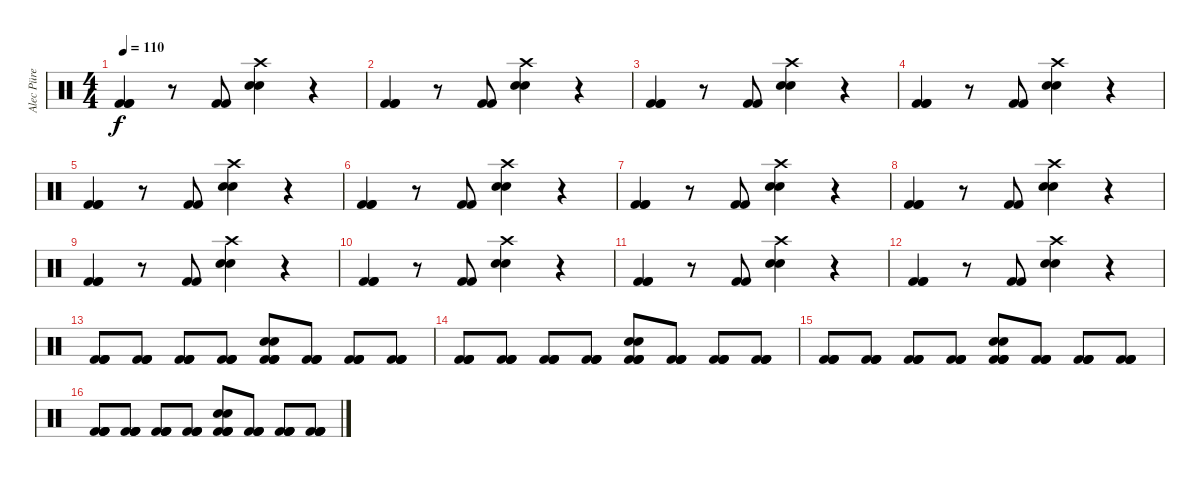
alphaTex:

\track ("Alec Püre" "Alec Püre") {instrument percussion}
\staff {score}
\articulation defaults
\ts (4 4)
\tempo 110
\clef neutral
\ks c
("Kick (hit) 2" "Kick (hit) 2" "Kick (hit) 2").4{dy f} r.8 ("Kick (hit) 2" "Kick (hit) 2").8 ("Crash high (hit)" "Snare (hit) 2" "Snare (hit) 2").4 r.4 |
("Kick (hit) 2" "Kick (hit) 2" "Kick (hit) 2").4 r.8 ("Kick (hit) 2" "Kick (hit) 2").8 ("Crash high (hit)" "Snare (hit) 2" "Snare (hit) 2").4 r.4 |
("Kick (hit) 2" "Kick (hit) 2" "Kick (hit) 2").4 r.8 ("Kick (hit) 2" "Kick (hit) 2").8 ("Crash high (hit)" "Snare (hit) 2" "Snare (hit) 2").4 r.4 |
("Kick (hit) 2" "Kick (hit) 2" "Kick (hit) 2").4 r.8 ("Kick (hit) 2" "Kick (hit) 2").8 ("Crash high (hit)" "Snare (hit) 2" "Snare (hit) 2").4 r.4 |
("Kick (hit) 2" "Kick (hit) 2" "Kick (hit) 2").4 r.8 ("Kick (hit) 2" "Kick (hit) 2").8 ("Crash high (hit)" "Snare (hit) 2" "Snare (hit) 2").4 r.4 |
("Kick (hit) 2" "Kick (hit) 2" "Kick (hit) 2").4 r.8 ("Kick (hit) 2" "Kick (hit) 2").8 ("Crash high (hit)" "Snare (hit) 2" "Snare (hit) 2").4 r.4 |
("Kick (hit) 2" "Kick (hit) 2" "Kick (hit) 2").4 r.8 ("Kick (hit) 2" "Kick (hit) 2").8 ("Crash high (hit)" "Snare (hit) 2" "Snare (hit) 2").4 r.4 |
("Kick (hit) 2" "Kick (hit) 2" "Kick (hit) 2").4 r.8 ("Kick (hit) 2" "Kick (hit) 2").8 ("Crash high (hit)" "Snare (hit) 2" "Snare (hit) 2").4 r.4 |
("Kick (hit) 2" "Kick (hit) 2" "Kick (hit) 2").4 r.8 ("Kick (hit) 2" "Kick (hit) 2").8 ("Crash high (hit)" "Snare (hit) 2" "Snare (hit) 2").4 r.4 |
("Kick (hit) 2" "Kick (hit) 2" "Kick (hit) 2").4 r.8 ("Kick (hit) 2" "Kick (hit) 2").8 ("Crash high (hit)" "Snare (hit) 2" "Snare (hit) 2").4 r.4 |
("Kick (hit) 2" "Kick (hit) 2" "Kick (hit) 2").4 r.8 ("Kick (hit) 2" "Kick (hit) 2").8 ("Crash high (hit)" "Snare (hit) 2" "Snare (hit) 2").4 r.4 |
("Kick (hit) 2" "Kick (hit) 2" "Kick (hit) 2").4 r.8 ("Kick (hit) 2" "Kick (hit) 2").8 ("Crash high (hit)" "Snare (hit) 2" "Snare (hit) 2").4 r.4 |
("Kick (hit) 2" "Kick (hit) 2" "Kick (hit) 2" "Kick (hit) 2").8 ("Kick (hit) 2" "Kick (hit) 2" "Kick (hit) 2" "Kick (hit) 2").8 ("Kick (hit) 2" "Kick (hit) 2" "Kick (hit) 2" "Kick (hit) 2").8 ("Kick (hit) 2" "Kick (hit) 2" "Kick (hit) 2" "Kick (hit) 2").8 ("Snare (hit) 2" "Snare (hit) 2" "Kick (hit) 2" "Kick (hit) 2" "Kick (hit) 2" "Kick (hit) 2").8 ("Kick (hit) 2" "Kick (hit) 2" "Kick (hit) 2" "Kick (hit) 2").8 ("Kick (hit) 2" "Kick (hit) 2" "Kick (hit) 2" "Kick (hit) 2").8 ("Kick (hit) 2" "Kick (hit) 2" "Kick (hit) 2" "Kick (hit) 2").8 |
("Kick (hit) 2" "Kick (hit) 2" "Kick (hit) 2" "Kick (hit) 2").8 ("Kick (hit) 2" "Kick (hit) 2" "Kick (hit) 2" "Kick (hit) 2").8 ("Kick (hit) 2" "Kick (hit) 2" "Kick (hit) 2" "Kick (hit) 2").8 ("Kick (hit) 2" "Kick (hit) 2" "Kick (hit) 2" "Kick (hit) 2").8 ("Snare (hit) 2" "Snare (hit) 2" "Kick (hit) 2" "Kick (hit) 2" "Kick (hit) 2" "Kick (hit) 2").8 ("Kick (hit) 2" "Kick (hit) 2" "Kick (hit) 2" "Kick (hit) 2").8 ("Kick (hit) 2" "Kick (hit) 2" "Kick (hit) 2" "Kick (hit) 2").8 ("Kick (hit) 2" "Kick (hit) 2" "Kick (hit) 2" "Kick (hit) 2").8 |
("Kick (hit) 2" "Kick (hit) 2" "Kick (hit) 2" "Kick (hit) 2").8 ("Kick (hit) 2" "Kick (hit) 2" "Kick (hit) 2" "Kick (hit) 2").8 ("Kick (hit) 2" "Kick (hit) 2" "Kick (hit) 2" "Kick (hit) 2").8 ("Kick (hit) 2" "Kick (hit) 2" "Kick (hit) 2" "Kick (hit) 2").8 ("Snare (hit) 2" "Snare (hit) 2" "Kick (hit) 2" "Kick (hit) 2" "Kick (hit) 2" "Kick (hit) 2").8 ("Kick (hit) 2" "Kick (hit) 2" "Kick (hit) 2" "Kick (hit) 2").8 ("Kick (hit) 2" "Kick (hit) 2" "Kick (hit) 2" "Kick (hit) 2").8 ("Kick (hit) 2" "Kick (hit) 2" "Kick (hit) 2" "Kick (hit) 2").8 |
("Kick (hit) 2" "Kick (hit) 2" "Kick (hit) 2" "Kick (hit) 2").8 ("Kick (hit) 2" "Kick (hit) 2" "Kick (hit) 2" "Kick (hit) 2").8 ("Kick (hit) 2" "Kick (hit) 2" "Kick (hit) 2" "Kick (hit) 2").8 ("Kick (hit) 2" "Kick (hit) 2" "Kick (hit) 2" "Kick (hit) 2").8 ("Snare (hit) 2" "Snare (hit) 2" "Kick (hit) 2" "Kick (hit) 2" "Kick (hit) 2" "Kick (hit) 2").8 ("Kick (hit) 2" "Kick (hit) 2" "Kick (hit) 2" "Kick (hit) 2").8 ("Kick (hit) 2" "Kick (hit) 2" "Kick (hit) 2" "Kick (hit) 2").8 ("Kick (hit) 2" "Kick (hit) 2" "Kick (hit) 2" "Kick (hit) 2").8
